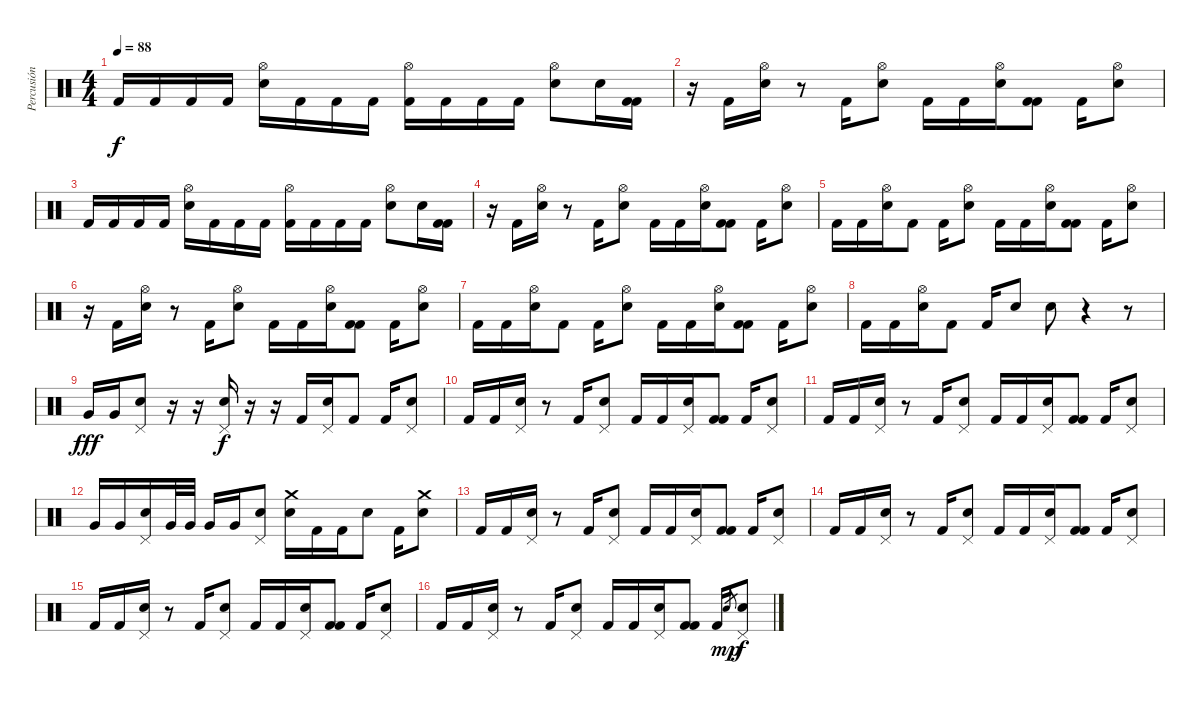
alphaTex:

\track ("Percusión" "Percusión") {instrument percussion}
\staff {score}
\articulation defaults
\ts (4 4)
\tempo 88
\clef neutral
\ks c "Kick (hit) 2".16{dy f} "Kick (hit) 2".16 "Kick (hit) 2".16 "Kick (hit) 2".16
("Electric Snare (hit)" "Hi-Hat (open)").16 "Kick (hit) 2".16 "Kick (hit) 2".16 "Kick (hit) 2".16 ("Kick (hit) 2" "Hi-Hat (open)").16 "Kick (hit) 2".16 "Kick (hit) 2".16 "Kick (hit) 2".16 ("Electric Snare (hit)" "Hi-Hat (open)").8 "Electric Snare (hit)".16 ("Kick (hit) 2" "Kick (hit) 2").16 |
r.16 "Kick (hit) 2".16 ("Electric Snare (hit)" "Hi-Hat (open)").16 r.8 "Kick (hit) 2".16 ("Electric Snare (hit)" "Hi-Hat (open)").8 "Kick (hit) 2".16 "Kick (hit) 2".16 ("Electric Snare (hit)" "Hi-Hat (open)").16 ("Kick (hit) 2" "Kick (hit) 2").8 "Kick (hit) 2".16 ("Electric Snare (hit)" "Hi-Hat (open)").8 |
"Kick (hit) 2".16 "Kick (hit) 2".16 "Kick (hit) 2".16 "Kick (hit) 2".16 ("Electric Snare (hit)" "Hi-Hat (open)").16 "Kick (hit) 2".16 "Kick (hit) 2".16 "Kick (hit) 2".16 ("Kick (hit) 2" "Hi-Hat (open)").16 "Kick (hit) 2".16 "Kick (hit) 2".16 "Kick (hit) 2".16 ("Electric Snare (hit)" "Hi-Hat (open)").8 "Electric Snare (hit)".16 ("Kick (hit) 2" "Kick (hit) 2").16 |
r.16 "Kick (hit) 2".16 ("Electric Snare (hit)" "Hi-Hat (open)").16 r.8 "Kick (hit) 2".16 ("Electric Snare (hit)" "Hi-Hat (open)").8 "Kick (hit) 2".16 "Kick (hit) 2".16 ("Electric Snare (hit)" "Hi-Hat (open)").16 ("Kick (hit) 2" "Kick (hit) 2").8 "Kick (hit) 2".16 ("Electric Snare (hit)" "Hi-Hat (open)").8 |
"Kick (hit) 2".16 "Kick (hit) 2".16 ("Electric Snare (hit)" "Hi-Hat (open)").16 "Kick (hit) 2".8 "Kick (hit) 2".16 ("Electric Snare (hit)" "Hi-Hat (open)").8 "Kick (hit) 2".16 "Kick (hit) 2".16 ("Electric Snare (hit)" "Hi-Hat (open)").16 ("Kick (hit) 2" "Kick (hit) 2").8 "Kick (hit) 2".16 ("Electric Snare (hit)" "Hi-Hat (open)").8 |
r.16 "Kick (hit) 2".16 ("Electric Snare (hit)" "Hi-Hat (open)").16 r.8 "Kick (hit) 2".16 ("Electric Snare (hit)" "Hi-Hat (open)").8 "Kick (hit) 2".16 "Kick (hit) 2".16 ("Electric Snare (hit)" "Hi-Hat (open)").16 ("Kick (hit) 2" "Kick (hit) 2").8 "Kick (hit) 2".16 ("Electric Snare (hit)" "Hi-Hat (open)").8 |
"Kick (hit) 2".16 "Kick (hit) 2".16 ("Electric Snare (hit)" "Hi-Hat (open)").16 "Kick (hit) 2".8 "Kick (hit) 2".16 ("Electric Snare (hit)" "Hi-Hat (open)").8 "Kick (hit) 2".16 "Kick (hit) 2".16 ("Electric Snare (hit)" "Hi-Hat (open)").16 ("Kick (hit) 2" "Kick (hit) 2").8 "Kick (hit) 2".16 ("Electric Snare (hit)" "Hi-Hat (open)").8 |
"Kick (hit) 2".16 "Kick (hit) 2".16 ("Electric Snare (hit)" "Hi-Hat (open)").16 "Kick (hit) 2".8 "Kick (hit) 2".16 "Electric Snare (hit)".8 "Electric Snare (hit)".8 r.4 r.8 |
"Very Low Tom (hit)".16{dy fff} "Very Low Tom (hit)".16 ("Electric Snare (hit)" "Pedal Hi-Hat (hit)").8 r.16 r.16 ("Electric Snare (hit)" "Pedal Hi-Hat (hit)").16{dy f} r.16 r.16 "Kick (hit) 2".16 ("Electric Snare (hit)" "Pedal Hi-Hat (hit)").16 "Kick (hit) 2".8 "Kick (hit) 2".16 ("Electric Snare (hit)" "Pedal Hi-Hat (hit)").8 |
"Kick (hit) 2".16 "Kick (hit) 2".16 ("Electric Snare (hit)" "Pedal Hi-Hat (hit)").16 r.8 "Kick (hit) 2".16 ("Electric Snare (hit)" "Pedal Hi-Hat (hit)").8 "Kick (hit) 2".16 "Kick (hit) 2".16 ("Electric Snare (hit)" "Pedal Hi-Hat (hit)").16 ("Kick (hit) 2" "Kick (hit) 2").8 "Kick (hit) 2".16 ("Electric Snare (hit)" "Pedal Hi-Hat (hit)").8 |
"Kick (hit) 2".16 "Kick (hit) 2".16 ("Electric Snare (hit)" "Pedal Hi-Hat (hit)").16 r.8 "Kick (hit) 2".16 ("Electric Snare (hit)" "Pedal Hi-Hat (hit)").8 "Kick (hit) 2".16 "Kick (hit) 2".16 ("Electric Snare (hit)" "Pedal Hi-Hat (hit)").16 ("Kick (hit) 2" "Kick (hit) 2").8 "Kick (hit) 2".16 ("Electric Snare (hit)" "Pedal Hi-Hat (hit)").8 |
"Very Low Tom (hit)".16 "Very Low Tom (hit)".16 ("Electric Snare (hit)" "Pedal Hi-Hat (hit)").16 "Very Low Tom (hit)".32 "Very Low Tom (hit)".32 "Very Low Tom (hit)".16 "Very Low Tom (hit)".16 ("Electric Snare (hit)" "Pedal Hi-Hat (hit)").8 ("Electric Snare (hit)" "Crash medium (hit)").16 "Kick (hit) 2".16 "Kick (hit) 2".16 "Electric Snare (hit)".8 "Kick (hit) 2".16 ("Electric Snare (hit)" "Crash medium (hit)").8 |
"Kick (hit) 2".16 "Kick (hit) 2".16 ("Electric Snare (hit)" "Pedal Hi-Hat (hit)").16 r.8 "Kick (hit) 2".16 ("Electric Snare (hit)" "Pedal Hi-Hat (hit)").8 "Kick (hit) 2".16 "Kick (hit) 2".16 ("Electric Snare (hit)" "Pedal Hi-Hat (hit)").16 ("Kick (hit) 2" "Kick (hit) 2").8 "Kick (hit) 2".16 ("Electric Snare (hit)" "Pedal Hi-Hat (hit)").8 |
"Kick (hit) 2".16 "Kick (hit) 2".16 ("Electric Snare (hit)" "Pedal Hi-Hat (hit)").16 r.8 "Kick (hit) 2".16 ("Electric Snare (hit)" "Pedal Hi-Hat (hit)").8 "Kick (hit) 2".16 "Kick (hit) 2".16 ("Electric Snare (hit)" "Pedal Hi-Hat (hit)").16 ("Kick (hit) 2" "Kick (hit) 2").8 "Kick (hit) 2".16 ("Electric Snare (hit)" "Pedal Hi-Hat (hit)").8 |
"Kick (hit) 2".16 "Kick (hit) 2".16 ("Electric Snare (hit)" "Pedal Hi-Hat (hit)").16 r.8 "Kick (hit) 2".16 ("Electric Snare (hit)" "Pedal Hi-Hat (hit)").8 "Kick (hit) 2".16 "Kick (hit) 2".16 ("Electric Snare (hit)" "Pedal Hi-Hat (hit)").16 ("Kick (hit) 2" "Kick (hit) 2").8 "Kick (hit) 2".16 ("Electric Snare (hit)" "Pedal Hi-Hat (hit)").8 |
"Kick (hit) 2".16 "Kick (hit) 2".16 ("Electric Snare (hit)" "Pedal Hi-Hat (hit)").16 r.8 "Kick (hit) 2".16 ("Electric Snare (hit)" "Pedal Hi-Hat (hit)").8 "Kick (hit) 2".16 "Kick (hit) 2".16 ("Electric Snare (hit)" "Pedal Hi-Hat (hit)").16 ("Kick (hit) 2" "Kick (hit) 2").8 "Kick (hit) 2".16 "Electric Snare (hit)".8{gr dy mp} ("Electric Snare (hit)" "Pedal Hi-Hat (hit)").8{dy f}
